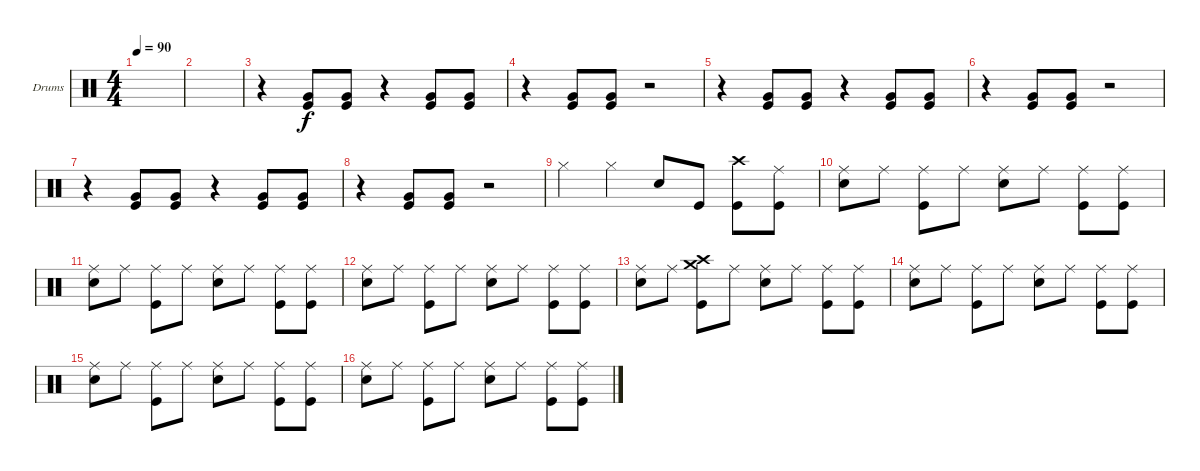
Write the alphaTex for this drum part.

\defaultSystemsLayout 4
\bracketExtendMode groupsimilarinstruments
\firstSystemTrackNameOrientation horizontal
\otherSystemsTrackNameOrientation horizontal
\track ("Drumkit" "Drums") {instrument percussion}
\staff {score}
\articulation defaults
\ts (4 4)
\tempo 90
\clef neutral
\ks c
|
|
r.4 ("Kick (hit)" "Very Low Tom (hit)").8 ("Kick (hit)" "Very Low Tom (hit)").8 r.4 ("Kick (hit)" "Very Low Tom (hit)").8 ("Kick (hit)" "Very Low Tom (hit)").8 |
r.4 ("Kick (hit)" "Very Low Tom (hit)").8 ("Kick (hit)" "Very Low Tom (hit)").8 r.2 |
r.4 ("Kick (hit)" "Very Low Tom (hit)").8 ("Kick (hit)" "Very Low Tom (hit)").8 r.4 ("Kick (hit)" "Very Low Tom (hit)").8 ("Kick (hit)" "Very Low Tom (hit)").8 |
r.4 ("Kick (hit)" "Very Low Tom (hit)").8 ("Kick (hit)" "Very Low Tom (hit)").8 r.2 |
r.4 ("Kick (hit)" "Very Low Tom (hit)").8 ("Kick (hit)" "Very Low Tom (hit)").8 r.4 ("Kick (hit)" "Very Low Tom (hit)").8 ("Kick (hit)" "Very Low Tom (hit)").8 |
r.4 ("Kick (hit)" "Very Low Tom (hit)").8 ("Kick (hit)" "Very Low Tom (hit)").8 r.2 |
"Hi-Hat (closed)".4 "Hi-Hat (closed)".4 "Snare (hit) 2".8 "Kick (hit)".8 ("Kick (hit)" "Crash high (hit)").8 ("Kick (hit)" "Ride (middle)").8 |
("Snare (hit) 2" "Ride (middle)").8 "Ride (middle)".8 ("Kick (hit)" "Ride (middle)").8 "Ride (middle)".8 ("Snare (hit) 2" "Ride (middle)").8 "Ride (middle)".8 ("Kick (hit)" "Ride (middle)").8 ("Kick (hit)" "Ride (middle)").8 |
("Snare (hit) 2" "Ride (middle)").8 "Ride (middle)".8 ("Kick (hit)" "Ride (middle)").8 "Ride (middle)".8 ("Snare (hit) 2" "Ride (middle)").8 "Ride (middle)".8 ("Kick (hit)" "Ride (middle)").8 ("Kick (hit)" "Ride (middle)").8 |
("Snare (hit) 2" "Ride (middle)").8 "Ride (middle)".8 ("Kick (hit)" "Ride (middle)").8 "Ride (middle)".8 ("Snare (hit) 2" "Ride (middle)").8 "Ride (middle)".8 ("Kick (hit)" "Ride (middle)").8 ("Kick (hit)" "Ride (middle)").8 |
("Snare (hit) 2" "Ride (middle)").8 "Ride (middle)".8 ("Kick (hit)" "Crash high (hit)" "Crash medium (hit)").8 "Ride (middle)".8 ("Snare (hit) 2" "Ride (middle)").8 "Ride (middle)".8 ("Kick (hit)" "Ride (middle)").8 ("Kick (hit)" "Ride (middle)").8 |
("Snare (hit) 2" "Ride (middle)").8 "Ride (middle)".8 ("Kick (hit)" "Ride (middle)").8 "Ride (middle)".8 ("Snare (hit) 2" "Ride (middle)").8 "Ride (middle)".8 ("Kick (hit)" "Ride (middle)").8 ("Kick (hit)" "Ride (middle)").8 |
("Snare (hit) 2" "Ride (middle)").8 "Ride (middle)".8 ("Kick (hit)" "Ride (middle)").8 "Ride (middle)".8 ("Snare (hit) 2" "Ride (middle)").8 "Ride (middle)".8 ("Kick (hit)" "Ride (middle)").8 ("Kick (hit)" "Ride (middle)").8 |
("Snare (hit) 2" "Ride (middle)").8 "Ride (middle)".8 ("Kick (hit)" "Ride (middle)").8 "Ride (middle)".8 ("Snare (hit) 2" "Ride (middle)").8 "Ride (middle)".8 ("Kick (hit)" "Ride (middle)").8 ("Kick (hit)" "Ride (middle)").8
